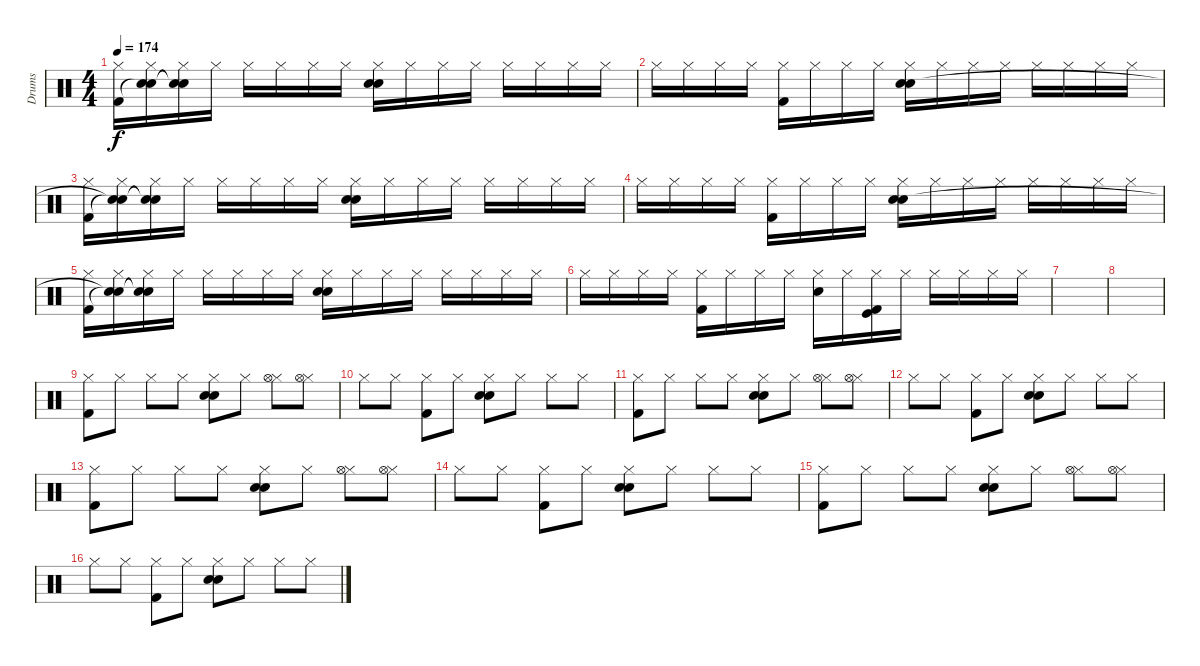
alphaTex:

\track ("Drums" "Drums") {instrument percussion}
\staff {score}
\articulation defaults
\ts (4 4)
\tempo 174
\clef neutral
\ks c
("Hi-Hat (closed)" "Kick (hit) 2").16{dy f} ("Hi-Hat (closed)" "Snare (hit)"{t} "Snare (hit)"{t}).16 ("Hi-Hat (closed)" "Snare (hit)"{t} "Snare (hit)"{t}).16 "Hi-Hat (closed)".16 "Hi-Hat (closed)".16 "Hi-Hat (closed)".16 "Hi-Hat (closed)".16 "Hi-Hat (closed)".16 ("Hi-Hat (closed)" "Electric Snare (hit)" "Snare (hit) 2").16 "Hi-Hat (closed)".16 "Hi-Hat (closed)".16 "Hi-Hat (closed)".16 "Hi-Hat (closed)".16 "Hi-Hat (closed)".16 "Hi-Hat (closed)".16 "Hi-Hat (closed)".16 |
"Hi-Hat (closed)".16 "Hi-Hat (closed)".16 "Hi-Hat (closed)".16 "Hi-Hat (closed)".16 ("Hi-Hat (closed)" "Kick (hit) 2").16 "Hi-Hat (closed)".16 "Hi-Hat (closed)".16 "Hi-Hat (closed)".16 ("Hi-Hat (closed)" "Electric Snare (hit)" "Snare (hit) 2").16 "Hi-Hat (closed)".16 "Hi-Hat (closed)".16 "Hi-Hat (closed)".16 "Hi-Hat (closed)".16 "Hi-Hat (closed)".16 "Hi-Hat (closed)".16 "Hi-Hat (closed)".16 |
("Hi-Hat (closed)" "Kick (hit) 2").16 ("Hi-Hat (closed)" "Snare (hit)"{t} "Snare (hit)"{t}).16 ("Hi-Hat (closed)" "Snare (hit)"{t} "Snare (hit)"{t}).16 "Hi-Hat (closed)".16 "Hi-Hat (closed)".16 "Hi-Hat (closed)".16 "Hi-Hat (closed)".16 "Hi-Hat (closed)".16 ("Hi-Hat (closed)" "Electric Snare (hit)" "Snare (hit) 2").16 "Hi-Hat (closed)".16 "Hi-Hat (closed)".16 "Hi-Hat (closed)".16 "Hi-Hat (closed)".16 "Hi-Hat (closed)".16 "Hi-Hat (closed)".16 "Hi-Hat (closed)".16 |
"Hi-Hat (closed)".16 "Hi-Hat (closed)".16 "Hi-Hat (closed)".16 "Hi-Hat (closed)".16 ("Hi-Hat (closed)" "Kick (hit) 2").16 "Hi-Hat (closed)".16 "Hi-Hat (closed)".16 "Hi-Hat (closed)".16 ("Hi-Hat (closed)" "Electric Snare (hit)" "Snare (hit) 2").16 "Hi-Hat (closed)".16 "Hi-Hat (closed)".16 "Hi-Hat (closed)".16 "Hi-Hat (closed)".16 "Hi-Hat (closed)".16 "Hi-Hat (closed)".16 "Hi-Hat (closed)".16 |
("Hi-Hat (closed)" "Kick (hit) 2").16 ("Hi-Hat (closed)" "Snare (hit)"{t} "Snare (hit)"{t}).16 ("Hi-Hat (closed)" "Snare (hit)"{t} "Snare (hit)"{t}).16 "Hi-Hat (closed)".16 "Hi-Hat (closed)".16 "Hi-Hat (closed)".16 "Hi-Hat (closed)".16 "Hi-Hat (closed)".16 ("Hi-Hat (closed)" "Electric Snare (hit)" "Snare (hit) 2").16 "Hi-Hat (closed)".16 "Hi-Hat (closed)".16 "Hi-Hat (closed)".16 "Hi-Hat (closed)".16 "Hi-Hat (closed)".16 "Hi-Hat (closed)".16 "Hi-Hat (closed)".16 |
"Hi-Hat (closed)".16 "Hi-Hat (closed)".16 "Hi-Hat (closed)".16 "Hi-Hat (closed)".16 ("Hi-Hat (closed)" "Kick (hit) 2").16 "Hi-Hat (closed)".16 "Hi-Hat (closed)".16 "Hi-Hat (closed)".16 ("Hi-Hat (closed)" "Electric Snare (hit)").16 "Hi-Hat (closed)".16 ("Hi-Hat (closed)" "Kick (hit) 2" "Kick (hit)").16 "Hi-Hat (closed)".16 "Hi-Hat (closed)".16 "Hi-Hat (closed)".16 "Hi-Hat (closed)".16 "Hi-Hat (closed)".16 |
|
|
("Hi-Hat (closed)" "Kick (hit) 2").8 "Hi-Hat (closed)".8 "Hi-Hat (closed)".8 "Hi-Hat (closed)".8 ("Hi-Hat (closed)" "Snare (hit) 2" "Hand Clap (hit)").8 "Hi-Hat (closed)".8 ("Hi-Hat (closed)" "Hi-Hat (open)").8 ("Hi-Hat (closed)" "Hi-Hat (open)").8 |
"Hi-Hat (closed)".8 "Hi-Hat (closed)".8 ("Hi-Hat (closed)" "Kick (hit) 2").8 "Hi-Hat (closed)".8 ("Hi-Hat (closed)" "Snare (hit) 2" "Hand Clap (hit)").8 "Hi-Hat (closed)".8 "Hi-Hat (closed)".8 "Hi-Hat (closed)".8 |
("Hi-Hat (closed)" "Kick (hit) 2").8 "Hi-Hat (closed)".8 "Hi-Hat (closed)".8 "Hi-Hat (closed)".8 ("Hi-Hat (closed)" "Snare (hit) 2" "Hand Clap (hit)").8 "Hi-Hat (closed)".8 ("Hi-Hat (closed)" "Hi-Hat (open)").8 ("Hi-Hat (closed)" "Hi-Hat (open)").8 |
"Hi-Hat (closed)".8 "Hi-Hat (closed)".8 ("Hi-Hat (closed)" "Kick (hit) 2").8 "Hi-Hat (closed)".8 ("Hi-Hat (closed)" "Snare (hit) 2" "Hand Clap (hit)").8 "Hi-Hat (closed)".8 "Hi-Hat (closed)".8 "Hi-Hat (closed)".8 |
("Hi-Hat (closed)" "Kick (hit) 2").8 "Hi-Hat (closed)".8 "Hi-Hat (closed)".8 "Hi-Hat (closed)".8 ("Hi-Hat (closed)" "Snare (hit) 2" "Hand Clap (hit)").8 "Hi-Hat (closed)".8 ("Hi-Hat (closed)" "Hi-Hat (open)").8 ("Hi-Hat (closed)" "Hi-Hat (open)").8 |
"Hi-Hat (closed)".8 "Hi-Hat (closed)".8 ("Hi-Hat (closed)" "Kick (hit) 2").8 "Hi-Hat (closed)".8 ("Hi-Hat (closed)" "Snare (hit) 2" "Hand Clap (hit)").8 "Hi-Hat (closed)".8 "Hi-Hat (closed)".8 "Hi-Hat (closed)".8 |
("Hi-Hat (closed)" "Kick (hit) 2").8 "Hi-Hat (closed)".8 "Hi-Hat (closed)".8 "Hi-Hat (closed)".8 ("Hi-Hat (closed)" "Snare (hit) 2" "Hand Clap (hit)").8 "Hi-Hat (closed)".8 ("Hi-Hat (closed)" "Hi-Hat (open)").8 ("Hi-Hat (closed)" "Hi-Hat (open)").8 |
"Hi-Hat (closed)".8 "Hi-Hat (closed)".8 ("Hi-Hat (closed)" "Kick (hit) 2").8 "Hi-Hat (closed)".8 ("Hi-Hat (closed)" "Snare (hit) 2" "Hand Clap (hit)").8 "Hi-Hat (closed)".8 "Hi-Hat (closed)".8 "Hi-Hat (closed)".8
